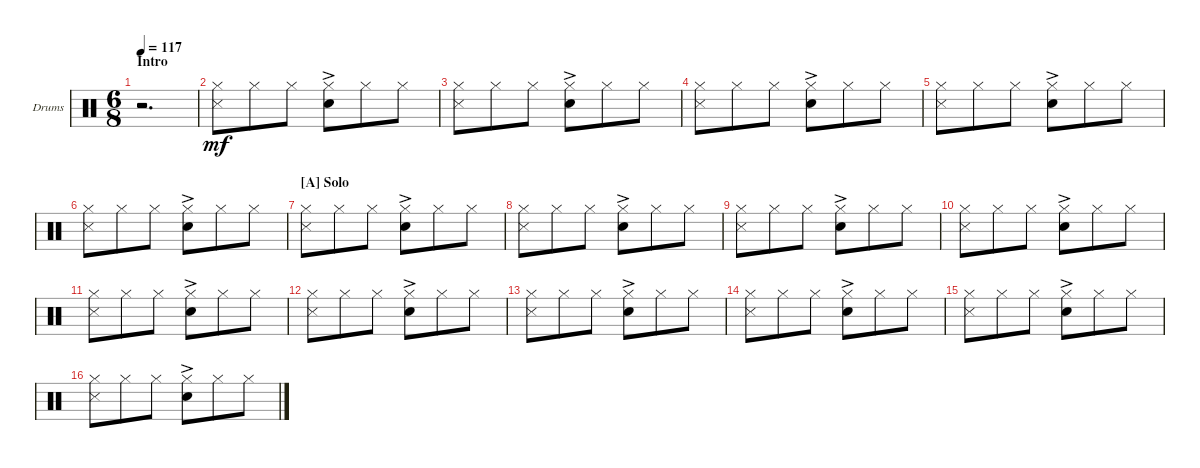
\defaultSystemsLayout 4
\bracketExtendMode groupsimilarinstruments
\firstSystemTrackNameOrientation horizontal
\otherSystemsTrackNameOrientation horizontal
\track ("Drumkit" "Drums") {instrument percussion}
\staff {score}
\articulation defaults
\ts (6 8)
\section ("" "Intro")
\tempo 117
\clef neutral
\ks c
r.2{d dy mf} |
("Hi-Hat (closed)" "Snare (side stick) 3").8 "Hi-Hat (closed)".8 "Hi-Hat (closed)".8 ("Hi-Hat (closed)" "Snare (hit) 2"{ac}).8 "Hi-Hat (closed)".8 "Hi-Hat (closed)".8 |
("Hi-Hat (closed)" "Snare (side stick) 3").8 "Hi-Hat (closed)".8 "Hi-Hat (closed)".8 ("Hi-Hat (closed)" "Snare (hit) 2"{ac}).8 "Hi-Hat (closed)".8 "Hi-Hat (closed)".8 |
("Hi-Hat (closed)" "Snare (side stick) 3").8 "Hi-Hat (closed)".8 "Hi-Hat (closed)".8 ("Hi-Hat (closed)" "Snare (hit) 2"{ac}).8 "Hi-Hat (closed)".8 "Hi-Hat (closed)".8 |
("Hi-Hat (closed)" "Snare (side stick) 3").8 "Hi-Hat (closed)".8 "Hi-Hat (closed)".8 ("Hi-Hat (closed)" "Snare (hit) 2"{ac}).8 "Hi-Hat (closed)".8 "Hi-Hat (closed)".8 |
("Hi-Hat (closed)" "Snare (side stick) 3").8 "Hi-Hat (closed)".8 "Hi-Hat (closed)".8 ("Hi-Hat (closed)" "Snare (hit) 2"{ac}).8 "Hi-Hat (closed)".8 "Hi-Hat (closed)".8 |
\section ("A" "Solo")
("Hi-Hat (closed)" "Snare (side stick) 3").8 "Hi-Hat (closed)".8 "Hi-Hat (closed)".8 ("Hi-Hat (closed)" "Snare (hit) 2"{ac}).8 "Hi-Hat (closed)".8 "Hi-Hat (closed)".8 |
("Hi-Hat (closed)" "Snare (side stick) 3").8 "Hi-Hat (closed)".8 "Hi-Hat (closed)".8 ("Hi-Hat (closed)" "Snare (hit) 2"{ac}).8 "Hi-Hat (closed)".8 "Hi-Hat (closed)".8 |
("Hi-Hat (closed)" "Snare (side stick) 3").8 "Hi-Hat (closed)".8 "Hi-Hat (closed)".8 ("Hi-Hat (closed)" "Snare (hit) 2"{ac}).8 "Hi-Hat (closed)".8 "Hi-Hat (closed)".8 |
("Hi-Hat (closed)" "Snare (side stick) 3").8 "Hi-Hat (closed)".8 "Hi-Hat (closed)".8 ("Hi-Hat (closed)" "Snare (hit) 2"{ac}).8 "Hi-Hat (closed)".8 "Hi-Hat (closed)".8 |
("Hi-Hat (closed)" "Snare (side stick) 3").8 "Hi-Hat (closed)".8 "Hi-Hat (closed)".8 ("Hi-Hat (closed)" "Snare (hit) 2"{ac}).8 "Hi-Hat (closed)".8 "Hi-Hat (closed)".8 |
("Hi-Hat (closed)" "Snare (side stick) 3").8 "Hi-Hat (closed)".8 "Hi-Hat (closed)".8 ("Hi-Hat (closed)" "Snare (hit) 2"{ac}).8 "Hi-Hat (closed)".8 "Hi-Hat (closed)".8 |
("Hi-Hat (closed)" "Snare (side stick) 3").8 "Hi-Hat (closed)".8 "Hi-Hat (closed)".8 ("Hi-Hat (closed)" "Snare (hit) 2"{ac}).8 "Hi-Hat (closed)".8 "Hi-Hat (closed)".8 |
("Hi-Hat (closed)" "Snare (side stick) 3").8 "Hi-Hat (closed)".8 "Hi-Hat (closed)".8 ("Hi-Hat (closed)" "Snare (hit) 2"{ac}).8 "Hi-Hat (closed)".8 "Hi-Hat (closed)".8 |
("Hi-Hat (closed)" "Snare (side stick) 3").8 "Hi-Hat (closed)".8 "Hi-Hat (closed)".8 ("Hi-Hat (closed)" "Snare (hit) 2"{ac}).8 "Hi-Hat (closed)".8 "Hi-Hat (closed)".8 |
("Hi-Hat (closed)" "Snare (side stick) 3").8 "Hi-Hat (closed)".8 "Hi-Hat (closed)".8 ("Hi-Hat (closed)" "Snare (hit) 2"{ac}).8 "Hi-Hat (closed)".8 "Hi-Hat (closed)".8
